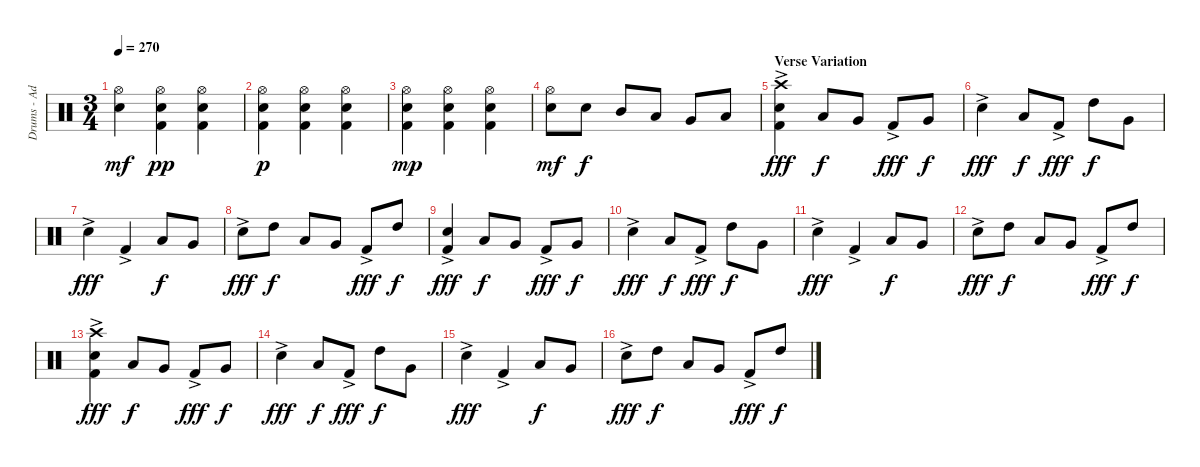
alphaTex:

\track ("Drums - Adam" "Drums - Ad") {instrument percussion}
\staff {score}
\articulation defaults
\ts (3 4)
\tempo 270
\clef neutral
\ks c
("Hi-Hat (open)" "Electric Snare (hit)").4{dy mf} ("Hi-Hat (open)" "Kick (hit) 2" "Electric Snare (hit)").4{dy pp} ("Hi-Hat (open)" "Kick (hit) 2" "Electric Snare (hit)").4 |
("Hi-Hat (open)" "Kick (hit) 2" "Electric Snare (hit)").4{dy p} ("Hi-Hat (open)" "Kick (hit) 2" "Electric Snare (hit)").4 ("Hi-Hat (open)" "Kick (hit) 2" "Electric Snare (hit)").4 |
("Hi-Hat (open)" "Kick (hit) 2" "Electric Snare (hit)").4{dy mp} ("Hi-Hat (open)" "Kick (hit) 2" "Electric Snare (hit)").4 ("Hi-Hat (open)" "Kick (hit) 2" "Electric Snare (hit)").4 |
("Hi-Hat (open)" "Electric Snare (hit)").8{dy mf} "Electric Snare (hit)".8{dy f} "Mid Tom (hit)".8 "Low Tom (hit)".8 "Very Low Tom (hit)".8 "Low Floor Tom (hit)".8 |
\section ("" "Verse Variation")
("Kick (hit) 2"{ac} "Electric Snare (hit)"{ac} "Crash high (hit)").4{dy fff} "Low Tom (hit)".8{dy f} "Very Low Tom (hit)".8 "Kick (hit) 2"{ac}.8{dy fff} "Very Low Tom (hit)".8{dy f} |
"Electric Snare (hit)"{ac}.4{dy fff} "Low Tom (hit)".8{dy f} "Kick (hit) 2"{ac}.8{dy fff} "High Tom (hit)".8{dy f} "Very Low Tom (hit)".8 |
"Electric Snare (hit)"{ac}.4{dy fff} "Kick (hit) 2"{ac}.4 "Low Tom (hit)".8{dy f} "Very Low Tom (hit)".8 |
"Electric Snare (hit)"{ac}.8{dy fff} "High Tom (hit)".8{dy f} "Low Tom (hit)".8 "Very Low Tom (hit)".8 "Kick (hit) 2"{ac}.8{dy fff} "High Tom (hit)".8{dy f} |
("Kick (hit) 2"{ac} "Electric Snare (hit)"{ac}).4{dy fff} "Low Tom (hit)".8{dy f} "Very Low Tom (hit)".8 "Kick (hit) 2"{ac}.8{dy fff} "Very Low Tom (hit)".8{dy f} |
"Electric Snare (hit)"{ac}.4{dy fff} "Low Tom (hit)".8{dy f} "Kick (hit) 2"{ac}.8{dy fff} "High Tom (hit)".8{dy f} "Very Low Tom (hit)".8 |
"Electric Snare (hit)"{ac}.4{dy fff} "Kick (hit) 2"{ac}.4 "Low Tom (hit)".8{dy f} "Very Low Tom (hit)".8 |
"Electric Snare (hit)"{ac}.8{dy fff} "High Tom (hit)".8{dy f} "Low Tom (hit)".8 "Very Low Tom (hit)".8 "Kick (hit) 2"{ac}.8{dy fff} "High Tom (hit)".8{dy f} |
("Kick (hit) 2"{ac} "Electric Snare (hit)"{ac} "Crash high (hit)").4{dy fff} "Low Tom (hit)".8{dy f} "Very Low Tom (hit)".8 "Kick (hit) 2"{ac}.8{dy fff} "Very Low Tom (hit)".8{dy f} |
"Electric Snare (hit)"{ac}.4{dy fff} "Low Tom (hit)".8{dy f} "Kick (hit) 2"{ac}.8{dy fff} "High Tom (hit)".8{dy f} "Very Low Tom (hit)".8 |
"Electric Snare (hit)"{ac}.4{dy fff} "Kick (hit) 2"{ac}.4 "Low Tom (hit)".8{dy f} "Very Low Tom (hit)".8 |
"Electric Snare (hit)"{ac}.8{dy fff} "High Tom (hit)".8{dy f} "Low Tom (hit)".8 "Very Low Tom (hit)".8 "Kick (hit) 2"{ac}.8{dy fff} "High Tom (hit)".8{dy f}
